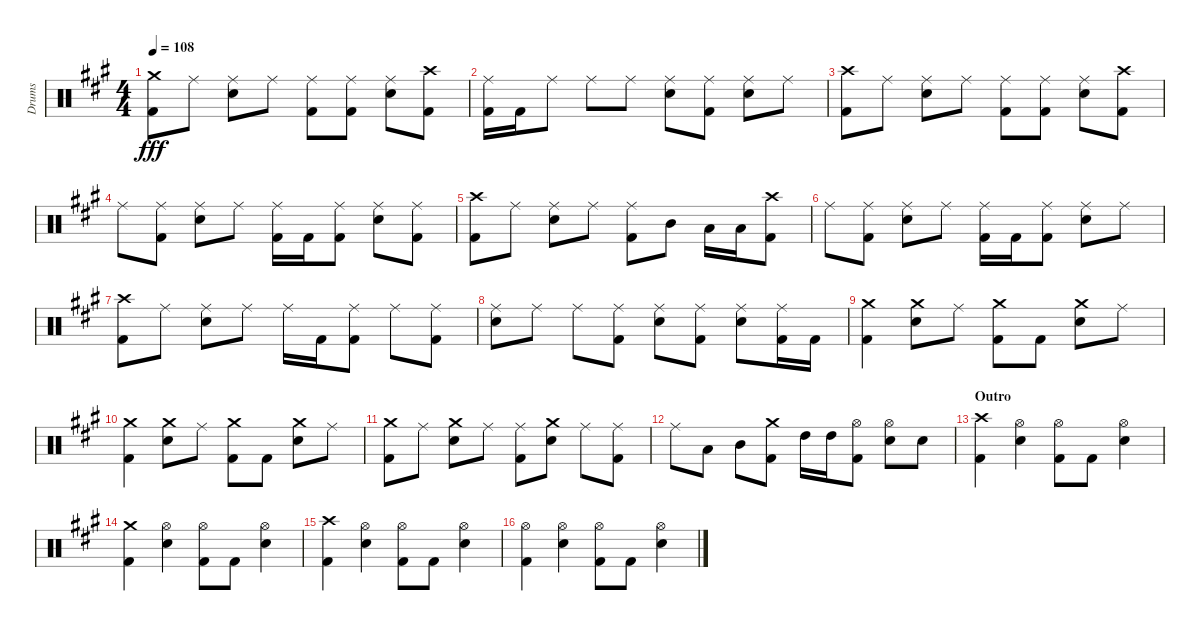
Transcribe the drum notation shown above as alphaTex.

\track ("Drums" "Drums") {instrument percussion}
\staff {score}
\articulation defaults
\ts (4 4)
\tempo 108
\clef neutral
\ks a
("Crash medium (hit)" "Kick (hit) 2").8{dy fff} "Ride (middle)".8 ("Ride (middle)" "Electric Snare (hit)").8 "Ride (middle)".8 ("Ride (middle)" "Kick (hit) 2").8 ("Ride (middle)" "Kick (hit) 2").8 ("Ride (middle)" "Electric Snare (hit)").8 ("Crash high (hit)" "Kick (hit) 2").8 |
("Ride (middle)" "Kick (hit) 2").16 "Kick (hit) 2".16 "Ride (middle)".8 "Ride (middle)".8 "Ride (middle)".8 ("Ride (middle)" "Electric Snare (hit)").8 ("Ride (middle)" "Kick (hit) 2").8 ("Ride (middle)" "Electric Snare (hit)").8 "Ride (middle)".8 |
("Crash high (hit)" "Kick (hit) 2").8 "Ride (middle)".8 ("Ride (middle)" "Electric Snare (hit)").8 "Ride (middle)".8 ("Ride (middle)" "Kick (hit) 2").8 ("Ride (middle)" "Kick (hit) 2").8 ("Ride (middle)" "Electric Snare (hit)").8 ("Crash high (hit)" "Kick (hit) 2").8 |
"Ride (middle)".8 ("Ride (middle)" "Kick (hit) 2").8 ("Ride (middle)" "Electric Snare (hit)").8 "Ride (middle)".8 ("Ride (middle)" "Kick (hit) 2").16 "Kick (hit) 2".16 ("Ride (middle)" "Kick (hit) 2").8 ("Ride (middle)" "Electric Snare (hit)").8 ("Ride (middle)" "Kick (hit) 2").8 |
("Crash high (hit)" "Kick (hit) 2").8 "Ride (middle)".8 ("Ride (middle)" "Electric Snare (hit)").8 "Ride (middle)".8 ("Ride (middle)" "Kick (hit) 2").8 "Mid Tom (hit)".8 "Low Tom (hit)".16 "Low Tom (hit)".16 ("Crash high (hit)" "Kick (hit) 2").8 |
"Ride (middle)".8 ("Ride (middle)" "Kick (hit) 2").8 ("Ride (middle)" "Electric Snare (hit)").8 "Ride (middle)".8 ("Ride (middle)" "Kick (hit) 2").16 "Kick (hit) 2".16 ("Ride (middle)" "Kick (hit) 2").8 ("Ride (middle)" "Electric Snare (hit)").8 "Ride (middle)".8 |
("Crash high (hit)" "Kick (hit) 2").8 "Ride (middle)".8 ("Ride (middle)" "Electric Snare (hit)").8 "Ride (middle)".8 "Ride (middle)".16 "Kick (hit) 2".16 ("Ride (middle)" "Kick (hit) 2").8 "Ride (middle)".8 ("Ride (middle)" "Kick (hit) 2").8 |
("Ride (middle)" "Electric Snare (hit)").8 "Ride (middle)".8 "Ride (middle)".8 ("Ride (middle)" "Kick (hit) 2").8 ("Ride (middle)" "Electric Snare (hit)").8 ("Ride (middle)" "Kick (hit) 2").8 ("Ride (middle)" "Electric Snare (hit)").8 ("Ride (middle)" "Kick (hit) 2").16 "Kick (hit) 2".16 |
("Crash medium (hit)" "Kick (hit) 2").4 ("Crash medium (hit)" "Electric Snare (hit)").8 "Ride (middle)".8 ("Crash medium (hit)" "Kick (hit) 2").8 "Kick (hit) 2".8 ("Crash medium (hit)" "Electric Snare (hit)").8 "Ride (middle)".8 |
("Crash medium (hit)" "Kick (hit) 2").4 ("Crash medium (hit)" "Electric Snare (hit)").8 "Ride (middle)".8 ("Crash medium (hit)" "Kick (hit) 2").8 "Kick (hit) 2".8 ("Crash medium (hit)" "Electric Snare (hit)").8 "Ride (middle)".8 |
("Crash medium (hit)" "Kick (hit) 2").8 "Ride (middle)".8 ("Crash medium (hit)" "Electric Snare (hit)").8 "Ride (middle)".8 ("Ride (middle)" "Kick (hit) 2").8 ("Crash medium (hit)" "Electric Snare (hit)").8 "Ride (middle)".8 ("Ride (middle)" "Kick (hit) 2").8 |
"Ride (middle)".8 "Low Tom (hit)".8 "Mid Tom (hit)".8 ("Crash medium (hit)" "Kick (hit) 2").8 "High Tom (hit)".16 "High Tom (hit)".16 ("Hi-Hat (open)" "Kick (hit) 2").8 ("Hi-Hat (open)" "Electric Snare (hit)").8 "Electric Snare (hit)".8 |
\section ("" "Outro")
("Crash high (hit)" "Kick (hit) 2").4 ("Hi-Hat (open)" "Electric Snare (hit)").4 ("Hi-Hat (open)" "Kick (hit) 2").8 "Kick (hit) 2".8 ("Hi-Hat (open)" "Electric Snare (hit)").4 |
("Crash medium (hit)" "Kick (hit) 2").4 ("Hi-Hat (open)" "Electric Snare (hit)").4 ("Hi-Hat (open)" "Kick (hit) 2").8 "Kick (hit) 2".8 ("Hi-Hat (open)" "Electric Snare (hit)").4 |
("Crash high (hit)" "Kick (hit) 2").4 ("Hi-Hat (open)" "Electric Snare (hit)").4 ("Hi-Hat (open)" "Kick (hit) 2").8 "Kick (hit) 2".8 ("Hi-Hat (open)" "Electric Snare (hit)").4 |
("Hi-Hat (open)" "Kick (hit) 2").4 ("Hi-Hat (open)" "Electric Snare (hit)").4 ("Hi-Hat (open)" "Kick (hit) 2").8 "Kick (hit) 2".8 ("Hi-Hat (open)" "Electric Snare (hit)").4
